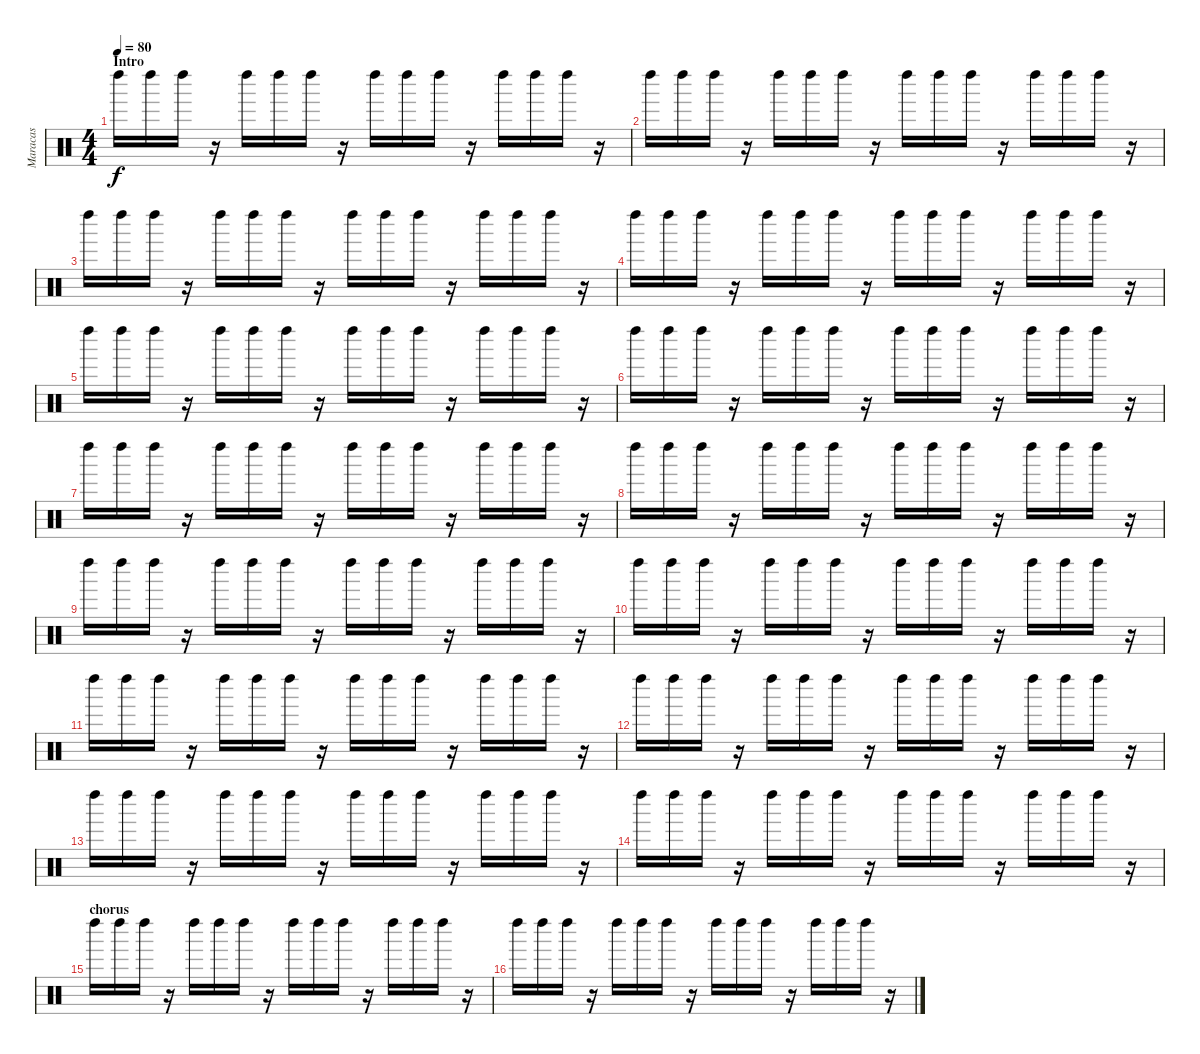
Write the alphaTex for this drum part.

\track ("Maracas" "Maracas") {instrument percussion}
\staff {score}
\articulation defaults
\ts (4 4)
\section ("" "Intro")
\tempo 80
\clef neutral
\ks aminor "Left Maraca (hit)".16{dy f} "Left Maraca (hit)".16 "Left Maraca (hit)".16
r.16 "Left Maraca (hit)".16 "Left Maraca (hit)".16 "Left Maraca (hit)".16 r.16 "Left Maraca (hit)".16 "Left Maraca (hit)".16 "Left Maraca (hit)".16 r.16 "Left Maraca (hit)".16 "Left Maraca (hit)".16 "Left Maraca (hit)".16 r.16 |
"Left Maraca (hit)".16 "Left Maraca (hit)".16 "Left Maraca (hit)".16 r.16 "Left Maraca (hit)".16 "Left Maraca (hit)".16 "Left Maraca (hit)".16 r.16 "Left Maraca (hit)".16 "Left Maraca (hit)".16 "Left Maraca (hit)".16 r.16 "Left Maraca (hit)".16 "Left Maraca (hit)".16 "Left Maraca (hit)".16 r.16 |
"Left Maraca (hit)".16 "Left Maraca (hit)".16 "Left Maraca (hit)".16 r.16 "Left Maraca (hit)".16 "Left Maraca (hit)".16 "Left Maraca (hit)".16 r.16 "Left Maraca (hit)".16 "Left Maraca (hit)".16 "Left Maraca (hit)".16 r.16 "Left Maraca (hit)".16 "Left Maraca (hit)".16 "Left Maraca (hit)".16 r.16 |
"Left Maraca (hit)".16 "Left Maraca (hit)".16 "Left Maraca (hit)".16 r.16 "Left Maraca (hit)".16 "Left Maraca (hit)".16 "Left Maraca (hit)".16 r.16 "Left Maraca (hit)".16 "Left Maraca (hit)".16 "Left Maraca (hit)".16 r.16 "Left Maraca (hit)".16 "Left Maraca (hit)".16 "Left Maraca (hit)".16 r.16 |
"Left Maraca (hit)".16 "Left Maraca (hit)".16 "Left Maraca (hit)".16 r.16 "Left Maraca (hit)".16 "Left Maraca (hit)".16 "Left Maraca (hit)".16 r.16 "Left Maraca (hit)".16 "Left Maraca (hit)".16 "Left Maraca (hit)".16 r.16 "Left Maraca (hit)".16 "Left Maraca (hit)".16 "Left Maraca (hit)".16 r.16 |
"Left Maraca (hit)".16 "Left Maraca (hit)".16 "Left Maraca (hit)".16 r.16 "Left Maraca (hit)".16 "Left Maraca (hit)".16 "Left Maraca (hit)".16 r.16 "Left Maraca (hit)".16 "Left Maraca (hit)".16 "Left Maraca (hit)".16 r.16 "Left Maraca (hit)".16 "Left Maraca (hit)".16 "Left Maraca (hit)".16 r.16 |
"Left Maraca (hit)".16 "Left Maraca (hit)".16 "Left Maraca (hit)".16 r.16 "Left Maraca (hit)".16 "Left Maraca (hit)".16 "Left Maraca (hit)".16 r.16 "Left Maraca (hit)".16 "Left Maraca (hit)".16 "Left Maraca (hit)".16 r.16 "Left Maraca (hit)".16 "Left Maraca (hit)".16 "Left Maraca (hit)".16 r.16 |
"Left Maraca (hit)".16 "Left Maraca (hit)".16 "Left Maraca (hit)".16 r.16 "Left Maraca (hit)".16 "Left Maraca (hit)".16 "Left Maraca (hit)".16 r.16 "Left Maraca (hit)".16 "Left Maraca (hit)".16 "Left Maraca (hit)".16 r.16 "Left Maraca (hit)".16 "Left Maraca (hit)".16 "Left Maraca (hit)".16 r.16 |
"Left Maraca (hit)".16 "Left Maraca (hit)".16 "Left Maraca (hit)".16 r.16 "Left Maraca (hit)".16 "Left Maraca (hit)".16 "Left Maraca (hit)".16 r.16 "Left Maraca (hit)".16 "Left Maraca (hit)".16 "Left Maraca (hit)".16 r.16 "Left Maraca (hit)".16 "Left Maraca (hit)".16 "Left Maraca (hit)".16 r.16 |
"Left Maraca (hit)".16 "Left Maraca (hit)".16 "Left Maraca (hit)".16 r.16 "Left Maraca (hit)".16 "Left Maraca (hit)".16 "Left Maraca (hit)".16 r.16 "Left Maraca (hit)".16 "Left Maraca (hit)".16 "Left Maraca (hit)".16 r.16 "Left Maraca (hit)".16 "Left Maraca (hit)".16 "Left Maraca (hit)".16 r.16 |
"Left Maraca (hit)".16 "Left Maraca (hit)".16 "Left Maraca (hit)".16 r.16 "Left Maraca (hit)".16 "Left Maraca (hit)".16 "Left Maraca (hit)".16 r.16 "Left Maraca (hit)".16 "Left Maraca (hit)".16 "Left Maraca (hit)".16 r.16 "Left Maraca (hit)".16 "Left Maraca (hit)".16 "Left Maraca (hit)".16 r.16 |
"Left Maraca (hit)".16 "Left Maraca (hit)".16 "Left Maraca (hit)".16 r.16 "Left Maraca (hit)".16 "Left Maraca (hit)".16 "Left Maraca (hit)".16 r.16 "Left Maraca (hit)".16 "Left Maraca (hit)".16 "Left Maraca (hit)".16 r.16 "Left Maraca (hit)".16 "Left Maraca (hit)".16 "Left Maraca (hit)".16 r.16 |
"Left Maraca (hit)".16 "Left Maraca (hit)".16 "Left Maraca (hit)".16 r.16 "Left Maraca (hit)".16 "Left Maraca (hit)".16 "Left Maraca (hit)".16 r.16 "Left Maraca (hit)".16 "Left Maraca (hit)".16 "Left Maraca (hit)".16 r.16 "Left Maraca (hit)".16 "Left Maraca (hit)".16 "Left Maraca (hit)".16 r.16 |
"Left Maraca (hit)".16 "Left Maraca (hit)".16 "Left Maraca (hit)".16 r.16 "Left Maraca (hit)".16 "Left Maraca (hit)".16 "Left Maraca (hit)".16 r.16 "Left Maraca (hit)".16 "Left Maraca (hit)".16 "Left Maraca (hit)".16 r.16 "Left Maraca (hit)".16 "Left Maraca (hit)".16 "Left Maraca (hit)".16 r.16 |
\section ("" "chorus")
"Left Maraca (hit)".16 "Left Maraca (hit)".16 "Left Maraca (hit)".16 r.16 "Left Maraca (hit)".16 "Left Maraca (hit)".16 "Left Maraca (hit)".16 r.16 "Left Maraca (hit)".16 "Left Maraca (hit)".16 "Left Maraca (hit)".16 r.16 "Left Maraca (hit)".16 "Left Maraca (hit)".16 "Left Maraca (hit)".16 r.16 |
"Left Maraca (hit)".16 "Left Maraca (hit)".16 "Left Maraca (hit)".16 r.16 "Left Maraca (hit)".16 "Left Maraca (hit)".16 "Left Maraca (hit)".16 r.16 "Left Maraca (hit)".16 "Left Maraca (hit)".16 "Left Maraca (hit)".16 r.16 "Left Maraca (hit)".16 "Left Maraca (hit)".16 "Left Maraca (hit)".16 r.16
